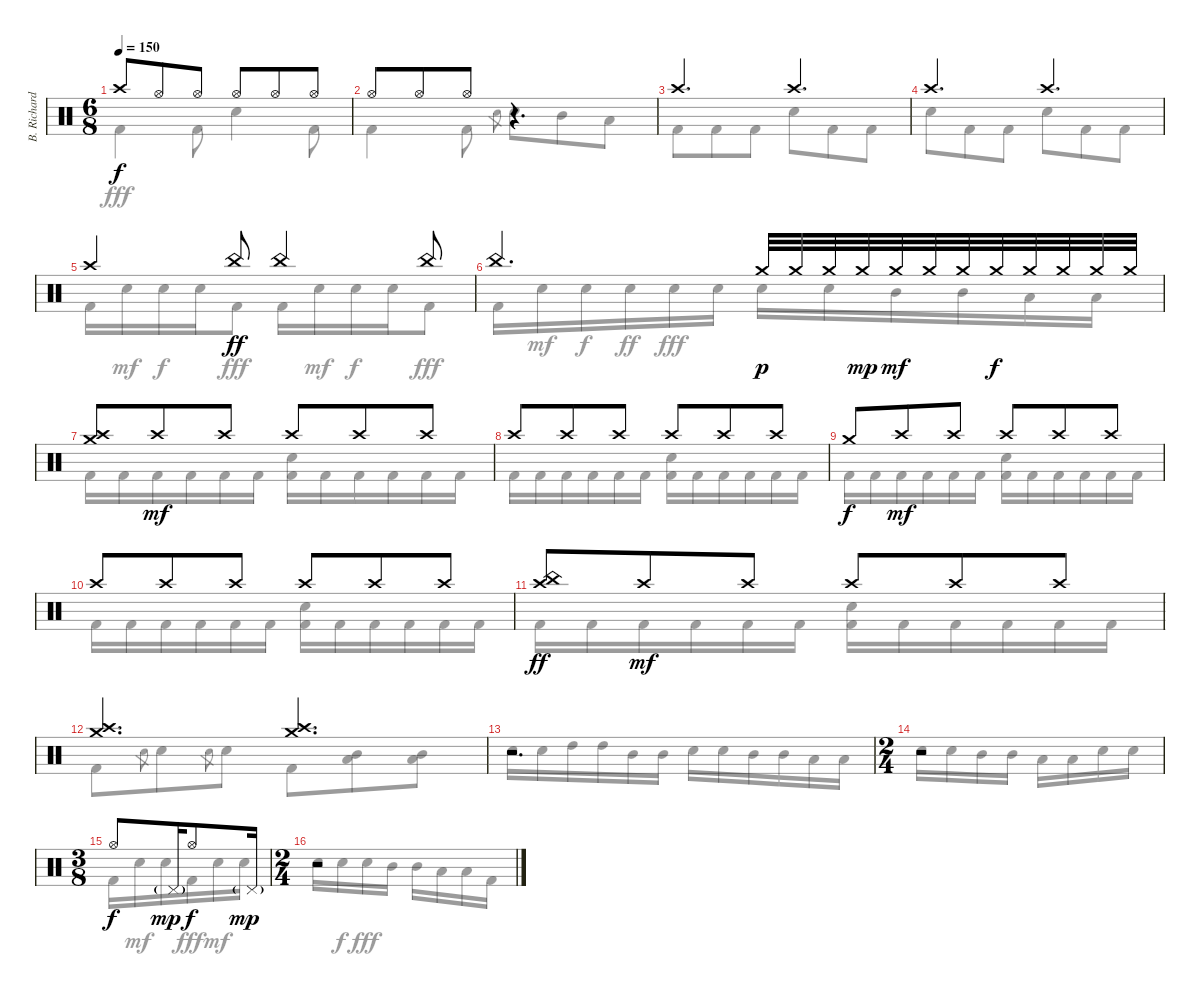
\track ("B. Richardson Drums" "B. Richard") {instrument percussion}
\staff {score}
\articulation defaults
\voice
\ts (6 8)
\tempo 150
\clef neutral
\ks c "Crash high (hit)".8{dy f} "Hi-Hat (open)".8 "Hi-Hat (open)".8 "Hi-Hat (open)".8 "Hi-Hat (open)".8 "Hi-Hat (open)".8
|
"Hi-Hat (open)".8 "Hi-Hat (open)".8 "Hi-Hat (open)".8 r.4{d} |
"Crash high (hit)".4{d} "Crash high (hit)".4{d} |
"Crash high (hit)".4{d} "Crash high (hit)".4{d} |
"Crash high (hit)".4 "China (hit)".8{dy ff} "China (hit)".4 "China (hit)".8 |
"China (hit)".4{d} "Crash medium (hit)".32{dy p} "Crash medium (hit)".32 "Crash medium (hit)".32 "Crash medium (hit)".32{dy mp} "Crash medium (hit)".32{dy mf} "Crash medium (hit)".32 "Crash medium (hit)".32 "Crash medium (hit)".32{dy f} "Crash medium (hit)".32 "Crash medium (hit)".32 "Crash medium (hit)".32 "Crash medium (hit)".32 |
("Crash medium (hit)" "Crash high (hit)").8 "Crash high (hit)".8{dy mf} "Crash high (hit)".8 "Crash high (hit)".8 "Crash high (hit)".8 "Crash high (hit)".8 |
"Crash high (hit)".8 "Crash high (hit)".8 "Crash high (hit)".8 "Crash high (hit)".8 "Crash high (hit)".8 "Crash high (hit)".8 |
"Crash medium (hit)".8{dy f} "Crash high (hit)".8{dy mf} "Crash high (hit)".8 "Crash high (hit)".8 "Crash high (hit)".8 "Crash high (hit)".8 |
"Crash high (hit)".8 "Crash high (hit)".8 "Crash high (hit)".8 "Crash high (hit)".8 "Crash high (hit)".8 "Crash high (hit)".8 |
("Crash high (hit)" "China (hit)").8{dy ff} "Crash high (hit)".8{dy mf} "Crash high (hit)".8 "Crash high (hit)".8 "Crash high (hit)".8 "Crash high (hit)".8 |
("Crash high (hit)" "Crash medium (hit)").4{d} ("Crash high (hit)" "Crash medium (hit)").4{d} |
r.2{d} |
\ts (2 4)
r.2 |
\ts (3 8)
"Hi-Hat (open)".8{dy f} "Pedal Hi-Hat (hit)"{g}.16{dy mp} "Hi-Hat (open)".8{dy f} "Pedal Hi-Hat (hit)"{g}.16{dy mp} |
\ts (2 4)
r.2
\voice
\clef neutral
\ottava regular
\simile none
\ks c "Kick (hit) 2".4{dy fff} "Kick (hit) 2".8 "Electric Snare (hit)".4 "Kick (hit) 2".8
|
"Kick (hit) 2".4 "Kick (hit) 2".8 "Electric Snare (hit)".8{gr} "Electric Snare (hit)".8 "Mid Tom (hit)".8 "Low Tom (hit)".8 |
"Kick (hit) 2".8 "Kick (hit) 2".8 "Kick (hit) 2".8 "Electric Snare (hit)".8 "Kick (hit) 2".8 "Kick (hit) 2".8 |
"Electric Snare (hit)".8 "Kick (hit) 2".8 "Kick (hit) 2".8 "Electric Snare (hit)".8 "Kick (hit) 2".8 "Kick (hit) 2".8 |
"Kick (hit) 2".16 "Electric Snare (hit)".16{dy mf} "Electric Snare (hit)".16{dy f} "Electric Snare (hit)".16 "Kick (hit) 2".8{dy fff} "Kick (hit) 2".16 "Electric Snare (hit)".16{dy mf} "Electric Snare (hit)".16{dy f} "Electric Snare (hit)".16 "Kick (hit) 2".8{dy fff} |
"Kick (hit) 2".16 "Electric Snare (hit)".16{dy mf} "Electric Snare (hit)".16{dy f} "Electric Snare (hit)".16{dy ff} "Electric Snare (hit)".16{dy fff} "Electric Snare (hit)".16 "Electric Snare (hit)".16 "Electric Snare (hit)".16 "Mid Tom (hit)".16 "Mid Tom (hit)".16 "Low Tom (hit)".16 "Low Tom (hit)".16 |
"Kick (hit) 2".16 "Kick (hit) 2".16 "Kick (hit) 2".16 "Kick (hit) 2".16 "Kick (hit) 2".16 "Kick (hit) 2".16 ("Electric Snare (hit)" "Kick (hit) 2").16 "Kick (hit) 2".16 "Kick (hit) 2".16 "Kick (hit) 2".16 "Kick (hit) 2".16 "Kick (hit) 2".16 |
"Kick (hit) 2".16 "Kick (hit) 2".16 "Kick (hit) 2".16 "Kick (hit) 2".16 "Kick (hit) 2".16 "Kick (hit) 2".16 ("Electric Snare (hit)" "Kick (hit) 2").16 "Kick (hit) 2".16 "Kick (hit) 2".16 "Kick (hit) 2".16 "Kick (hit) 2".16 "Kick (hit) 2".16 |
"Kick (hit) 2".16 "Kick (hit) 2".16 "Kick (hit) 2".16 "Kick (hit) 2".16 "Kick (hit) 2".16 "Kick (hit) 2".16 ("Electric Snare (hit)" "Kick (hit) 2").16 "Kick (hit) 2".16 "Kick (hit) 2".16 "Kick (hit) 2".16 "Kick (hit) 2".16 "Kick (hit) 2".16 |
"Kick (hit) 2".16 "Kick (hit) 2".16 "Kick (hit) 2".16 "Kick (hit) 2".16 "Kick (hit) 2".16 "Kick (hit) 2".16 ("Electric Snare (hit)" "Kick (hit) 2").16 "Kick (hit) 2".16 "Kick (hit) 2".16 "Kick (hit) 2".16 "Kick (hit) 2".16 "Kick (hit) 2".16 |
"Kick (hit) 2".16 "Kick (hit) 2".16 "Kick (hit) 2".16 "Kick (hit) 2".16 "Kick (hit) 2".16 "Kick (hit) 2".16 ("Electric Snare (hit)" "Kick (hit) 2").16 "Kick (hit) 2".16 "Kick (hit) 2".16 "Kick (hit) 2".16 "Kick (hit) 2".16 "Kick (hit) 2".16 |
"Kick (hit) 2".8 "Electric Snare (hit)".8{gr} "Electric Snare (hit)".8 "Electric Snare (hit)".8{gr} "Electric Snare (hit)".8 "Kick (hit) 2".8 ("Mid Tom (hit)" "Low Tom (hit)").8 ("Mid Tom (hit)" "Low Tom (hit)").8 |
"Electric Snare (hit)".16 "Electric Snare (hit)".16 "High Tom (hit)".16 "High Tom (hit)".16 "Mid Tom (hit)".16 "Mid Tom (hit)".16 "Electric Snare (hit)".16 "Electric Snare (hit)".16 "Mid Tom (hit)".16 "Mid Tom (hit)".16 "Low Tom (hit)".16 "Low Tom (hit)".16 |
"Electric Snare (hit)".16 "Electric Snare (hit)".16 "Mid Tom (hit)".16 "Mid Tom (hit)".16 "Low Tom (hit)".16 "Low Tom (hit)".16 "Electric Snare (hit)".16 "Electric Snare (hit)".16 |
"Kick (hit) 2".16 "Electric Snare (hit)".16{dy mf} "Electric Snare (hit)".16 "Kick (hit) 2".16{dy fff} "Electric Snare (hit)".16{dy mf} "Electric Snare (hit)".16 |
"Electric Snare (hit)".16 "Electric Snare (hit)".16{dy f} "Electric Snare (hit)".16{dy fff} "Mid Tom (hit)".16 "Mid Tom (hit)".16 "Low Tom (hit)".16 "Low Tom (hit)".16 "Kick (hit) 2".16
